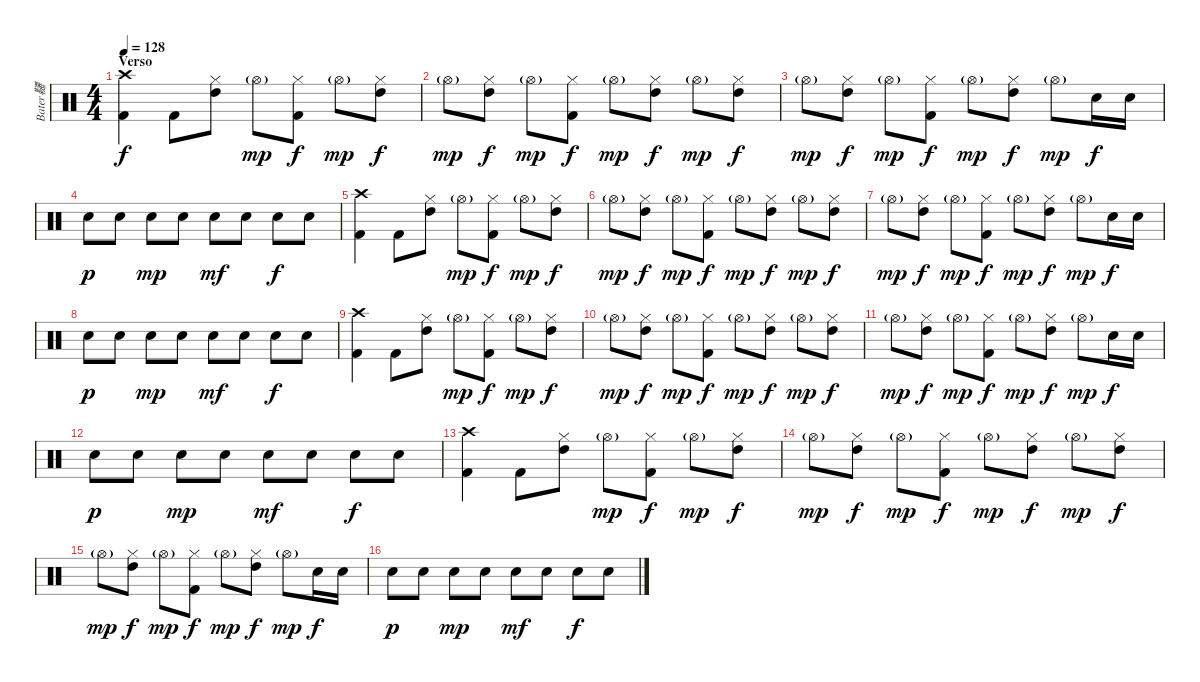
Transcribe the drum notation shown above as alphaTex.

\track ("Bater韆" "Bater韆") {instrument percussion}
\staff {score}
\articulation defaults
\ts (4 4)
\section ("" "Verso")
\tempo 128
\clef neutral
\ks c
("Crash high (hit)" "Kick (hit) 2").4{dy f} "Kick (hit) 2".8 ("Hi-Hat (closed)" "High Tom (hit)").8 "Hi-Hat (open)"{g}.8{dy mp} ("Hi-Hat (closed)" "Kick (hit) 2").8{dy f} "Hi-Hat (open)"{g}.8{dy mp} ("Hi-Hat (closed)" "High Tom (hit)").8{dy f} |
"Hi-Hat (open)"{g}.8{dy mp} ("Hi-Hat (closed)" "High Tom (hit)").8{dy f} "Hi-Hat (open)"{g}.8{dy mp} ("Hi-Hat (closed)" "Kick (hit) 2").8{dy f} "Hi-Hat (open)"{g}.8{dy mp} ("Hi-Hat (closed)" "High Tom (hit)").8{dy f} "Hi-Hat (open)"{g}.8{dy mp} ("Hi-Hat (closed)" "High Tom (hit)").8{dy f} |
"Hi-Hat (open)"{g}.8{dy mp} ("Hi-Hat (closed)" "High Tom (hit)").8{dy f} "Hi-Hat (open)"{g}.8{dy mp} ("Hi-Hat (closed)" "Kick (hit) 2").8{dy f} "Hi-Hat (open)"{g}.8{dy mp} ("Hi-Hat (closed)" "High Tom (hit)").8{dy f} "Hi-Hat (open)"{g}.8{dy mp} "Electric Snare (hit)".16{dy f} "Electric Snare (hit)".16 |
"Electric Snare (hit)".8{dy p} "Electric Snare (hit)".8 "Electric Snare (hit)".8{dy mp} "Electric Snare (hit)".8 "Electric Snare (hit)".8{dy mf} "Electric Snare (hit)".8 "Electric Snare (hit)".8{dy f} "Electric Snare (hit)".8 |
("Crash high (hit)" "Kick (hit) 2").4 "Kick (hit) 2".8 ("Hi-Hat (closed)" "High Tom (hit)").8 "Hi-Hat (open)"{g}.8{dy mp} ("Hi-Hat (closed)" "Kick (hit) 2").8{dy f} "Hi-Hat (open)"{g}.8{dy mp} ("Hi-Hat (closed)" "High Tom (hit)").8{dy f} |
"Hi-Hat (open)"{g}.8{dy mp} ("Hi-Hat (closed)" "High Tom (hit)").8{dy f} "Hi-Hat (open)"{g}.8{dy mp} ("Hi-Hat (closed)" "Kick (hit) 2").8{dy f} "Hi-Hat (open)"{g}.8{dy mp} ("Hi-Hat (closed)" "High Tom (hit)").8{dy f} "Hi-Hat (open)"{g}.8{dy mp} ("Hi-Hat (closed)" "High Tom (hit)").8{dy f} |
"Hi-Hat (open)"{g}.8{dy mp} ("Hi-Hat (closed)" "High Tom (hit)").8{dy f} "Hi-Hat (open)"{g}.8{dy mp} ("Hi-Hat (closed)" "Kick (hit) 2").8{dy f} "Hi-Hat (open)"{g}.8{dy mp} ("Hi-Hat (closed)" "High Tom (hit)").8{dy f} "Hi-Hat (open)"{g}.8{dy mp} "Electric Snare (hit)".16{dy f} "Electric Snare (hit)".16 |
"Electric Snare (hit)".8{dy p} "Electric Snare (hit)".8 "Electric Snare (hit)".8{dy mp} "Electric Snare (hit)".8 "Electric Snare (hit)".8{dy mf} "Electric Snare (hit)".8 "Electric Snare (hit)".8{dy f} "Electric Snare (hit)".8 |
("Crash high (hit)" "Kick (hit) 2").4 "Kick (hit) 2".8 ("Hi-Hat (closed)" "High Tom (hit)").8 "Hi-Hat (open)"{g}.8{dy mp} ("Hi-Hat (closed)" "Kick (hit) 2").8{dy f} "Hi-Hat (open)"{g}.8{dy mp} ("Hi-Hat (closed)" "High Tom (hit)").8{dy f} |
"Hi-Hat (open)"{g}.8{dy mp} ("Hi-Hat (closed)" "High Tom (hit)").8{dy f} "Hi-Hat (open)"{g}.8{dy mp} ("Hi-Hat (closed)" "Kick (hit) 2").8{dy f} "Hi-Hat (open)"{g}.8{dy mp} ("Hi-Hat (closed)" "High Tom (hit)").8{dy f} "Hi-Hat (open)"{g}.8{dy mp} ("Hi-Hat (closed)" "High Tom (hit)").8{dy f} |
"Hi-Hat (open)"{g}.8{dy mp} ("Hi-Hat (closed)" "High Tom (hit)").8{dy f} "Hi-Hat (open)"{g}.8{dy mp} ("Hi-Hat (closed)" "Kick (hit) 2").8{dy f} "Hi-Hat (open)"{g}.8{dy mp} ("Hi-Hat (closed)" "High Tom (hit)").8{dy f} "Hi-Hat (open)"{g}.8{dy mp} "Electric Snare (hit)".16{dy f} "Electric Snare (hit)".16 |
"Electric Snare (hit)".8{dy p} "Electric Snare (hit)".8 "Electric Snare (hit)".8{dy mp} "Electric Snare (hit)".8 "Electric Snare (hit)".8{dy mf} "Electric Snare (hit)".8 "Electric Snare (hit)".8{dy f} "Electric Snare (hit)".8 |
("Crash high (hit)" "Kick (hit) 2").4 "Kick (hit) 2".8 ("Hi-Hat (closed)" "High Tom (hit)").8 "Hi-Hat (open)"{g}.8{dy mp} ("Hi-Hat (closed)" "Kick (hit) 2").8{dy f} "Hi-Hat (open)"{g}.8{dy mp} ("Hi-Hat (closed)" "High Tom (hit)").8{dy f} |
"Hi-Hat (open)"{g}.8{dy mp} ("Hi-Hat (closed)" "High Tom (hit)").8{dy f} "Hi-Hat (open)"{g}.8{dy mp} ("Hi-Hat (closed)" "Kick (hit) 2").8{dy f} "Hi-Hat (open)"{g}.8{dy mp} ("Hi-Hat (closed)" "High Tom (hit)").8{dy f} "Hi-Hat (open)"{g}.8{dy mp} ("Hi-Hat (closed)" "High Tom (hit)").8{dy f} |
"Hi-Hat (open)"{g}.8{dy mp} ("Hi-Hat (closed)" "High Tom (hit)").8{dy f} "Hi-Hat (open)"{g}.8{dy mp} ("Hi-Hat (closed)" "Kick (hit) 2").8{dy f} "Hi-Hat (open)"{g}.8{dy mp} ("Hi-Hat (closed)" "High Tom (hit)").8{dy f} "Hi-Hat (open)"{g}.8{dy mp} "Electric Snare (hit)".16{dy f} "Electric Snare (hit)".16 |
"Electric Snare (hit)".8{dy p} "Electric Snare (hit)".8 "Electric Snare (hit)".8{dy mp} "Electric Snare (hit)".8 "Electric Snare (hit)".8{dy mf} "Electric Snare (hit)".8 "Electric Snare (hit)".8{dy f} "Electric Snare (hit)".8
